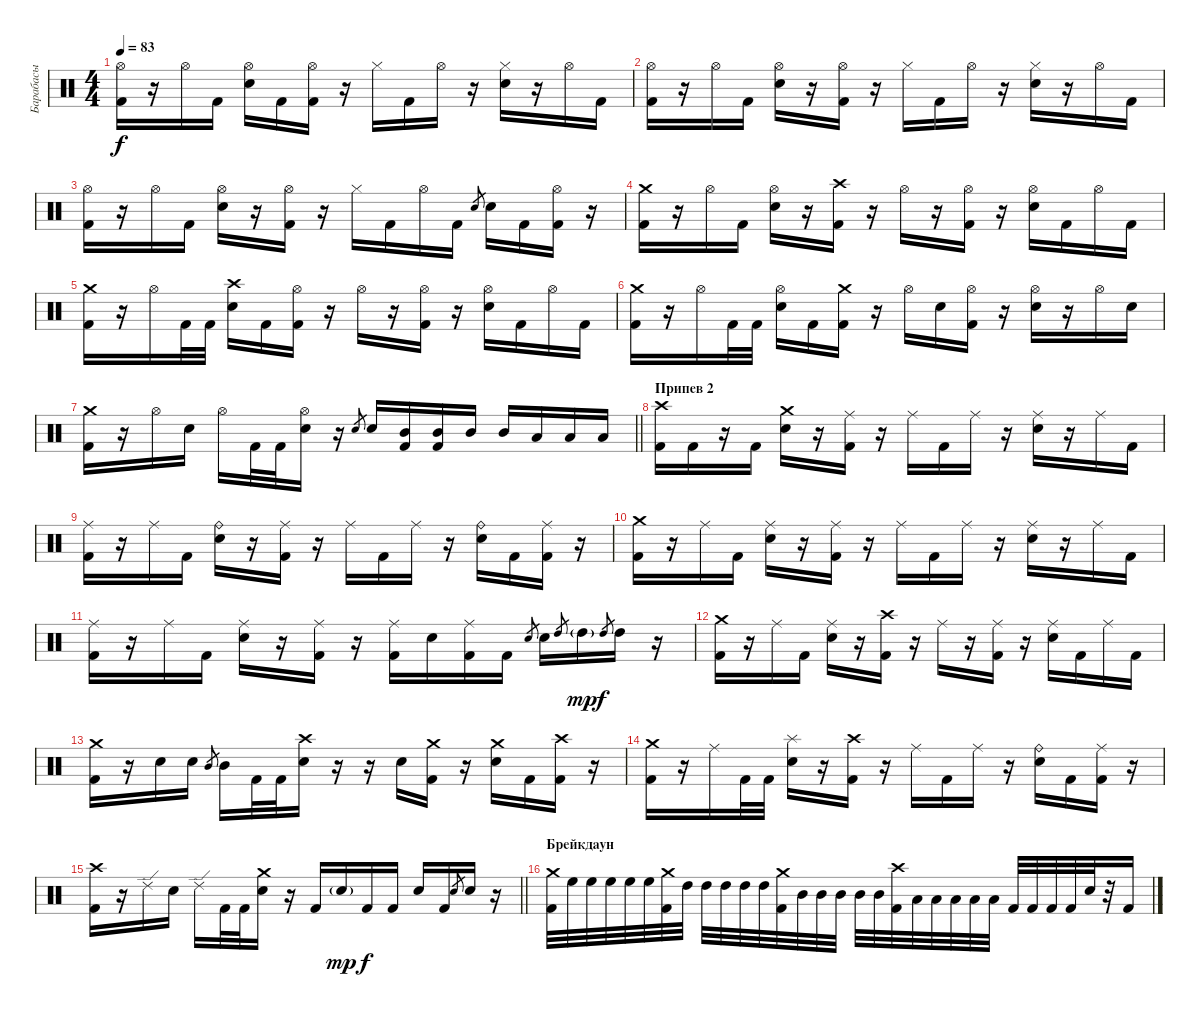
\track ("Барабасы" "Барабасы") {instrument percussion}
\staff {score}
\articulation defaults
\ts (4 4)
\tempo 83
\clef neutral
\ks c
("Kick (hit) 2" "Hi-Hat (open)").16{dy f} r.16 "Hi-Hat (open)".16 "Kick (hit) 2".16 ("Electric Snare (hit)" "Hi-Hat (open)").16 "Kick (hit) 2".16 ("Kick (hit) 2" "Hi-Hat (open)").16 r.16 "Hi-Hat (closed)".16 "Kick (hit) 2".16 "Hi-Hat (open)".16 r.16 ("Electric Snare (hit)" "Hi-Hat (closed)").16 r.16 "Hi-Hat (open)".16 "Kick (hit) 2".16 |
("Hi-Hat (open)" "Kick (hit) 2").16 r.16 "Hi-Hat (open)".16 "Kick (hit) 2".16 ("Electric Snare (hit)" "Hi-Hat (open)").16 r.16 ("Hi-Hat (open)" "Kick (hit) 2").16 r.16 "Hi-Hat (closed)".16 "Kick (hit) 2".16 "Hi-Hat (open)".16 r.16 ("Electric Snare (hit)" "Hi-Hat (closed)").16 r.16 "Hi-Hat (open)".16 "Kick (hit) 2".16 |
("Hi-Hat (open)" "Kick (hit) 2").16 r.16 "Hi-Hat (open)".16 "Kick (hit) 2".16 ("Electric Snare (hit)" "Hi-Hat (open)").16 r.16 ("Hi-Hat (open)" "Kick (hit) 2").16 r.16 "Hi-Hat (closed)".16 "Kick (hit) 2".16 "Hi-Hat (open)".16 "Kick (hit) 2".16 "Electric Snare (hit)".8{gr} "Electric Snare (hit)".16 "Kick (hit) 2".16 ("Kick (hit) 2" "Hi-Hat (open)").16 r.16 |
("Kick (hit) 2" "Crash medium (hit)").16 r.16 "Hi-Hat (open)".16 "Kick (hit) 2".16 ("Electric Snare (hit)" "Hi-Hat (open)").16 r.16 ("Kick (hit) 2" "Crash high (hit)").16 r.16 "Hi-Hat (open)".16 r.16 ("Kick (hit) 2" "Hi-Hat (open)").16 r.16 ("Electric Snare (hit)" "Hi-Hat (open)").16 "Kick (hit) 2".16 "Hi-Hat (open)".16 "Kick (hit) 2".16 |
("Kick (hit) 2" "Crash medium (hit)").16 r.16 "Hi-Hat (open)".16 "Kick (hit) 2".32 "Kick (hit) 2".32 ("Electric Snare (hit)" "Crash high (hit)").16 "Kick (hit) 2".16 ("Kick (hit) 2" "Hi-Hat (open)").16 r.16 "Hi-Hat (open)".16 r.16 ("Kick (hit) 2" "Hi-Hat (open)").16 r.16 ("Electric Snare (hit)" "Hi-Hat (open)").16 "Kick (hit) 2".16 "Hi-Hat (open)".16 "Kick (hit) 2".16 |
("Kick (hit) 2" "Crash medium (hit)").16 r.16 "Hi-Hat (open)".16 "Kick (hit) 2".32 "Kick (hit) 2".32 ("Electric Snare (hit)" "Hi-Hat (open)").16 "Kick (hit) 2".16 ("Kick (hit) 2" "Crash medium (hit)").16 r.16 "Hi-Hat (open)".16 "Electric Snare (hit)".16 ("Kick (hit) 2" "Hi-Hat (open)").16 r.16 ("Electric Snare (hit)" "Hi-Hat (open)").16 r.16 "Hi-Hat (open)".16 "Electric Snare (hit)".16 |
\barLineRight lightlight
("Kick (hit) 2" "Crash medium (hit)").16 r.16 "Hi-Hat (open)".16 "Electric Snare (hit)".16 "Hi-Hat (open)".16 "Kick (hit) 2".32 "Kick (hit) 2".32 ("Electric Snare (hit)" "Hi-Hat (open)").16 r.16 "Electric Snare (hit)".8{gr} "Electric Snare (hit)".16 ("Kick (hit) 2" "Mid Tom (hit)").16 ("Kick (hit) 2" "Mid Tom (hit)").16 "Mid Tom (hit)".16 "Mid Tom (hit)".16 "Low Tom (hit)".16 "Low Tom (hit)".16 "Low Tom (hit)".16 |
\section ("" "Припев 2")
("Crash high (hit)" "Kick (hit) 2").16 "Kick (hit) 2".16 r.16 "Kick (hit) 2".16 ("Crash medium (hit)" "Electric Snare (hit)").16 r.16 ("Kick (hit) 2" "Ride (middle)").16 r.16 "Ride (middle)".16 "Kick (hit) 2".16 "Ride (middle)".16 r.16 ("Electric Snare (hit)" "Ride (middle)").16 r.16 "Ride (middle)".16 "Kick (hit) 2".16 |
("Kick (hit) 2" "Ride (middle)").16 r.16 "Ride (middle)".16 "Kick (hit) 2".16 ("Electric Snare (hit)" "Ride (bell)").16 r.16 ("Kick (hit) 2" "Ride (middle)").16 r.16 "Ride (middle)".16 "Kick (hit) 2".16 "Ride (middle)".16 r.16 ("Electric Snare (hit)" "Ride (bell)").16 "Kick (hit) 2".16 ("Kick (hit) 2" "Ride (middle)").16 r.16 |
("Kick (hit) 2" "Crash medium (hit)").16 r.16 "Ride (middle)".16 "Kick (hit) 2".16 ("Electric Snare (hit)" "Ride (middle)").16 r.16 ("Kick (hit) 2" "Ride (middle)").16 r.16 "Ride (middle)".16 "Kick (hit) 2".16 "Ride (middle)".16 r.16 ("Electric Snare (hit)" "Ride (middle)").16 r.16 "Ride (middle)".16 "Kick (hit) 2".16 |
("Kick (hit) 2" "Ride (middle)").16 r.16 "Ride (middle)".16 "Kick (hit) 2".16 ("Electric Snare (hit)" "Ride (middle)").16 r.16 ("Kick (hit) 2" "Ride (middle)").16 r.16 ("Kick (hit) 2" "Ride (middle)").16 "Electric Snare (hit)".16 ("Kick (hit) 2" "Ride (middle)").16 "Kick (hit) 2".16 "Electric Snare (hit)".8{gr} "Electric Snare (hit)".16 "High Tom (hit)".8{gr} "High Tom (hit)"{g}.16{dy mp} "High Tom (hit)".8{gr dy f} "High Tom (hit)".16 r.16 |
("Kick (hit) 2" "Crash medium (hit)").16 r.16 "Ride (middle)".16 "Kick (hit) 2".16 ("Electric Snare (hit)" "Ride (middle)").16 r.16 ("Kick (hit) 2" "Crash high (hit)").16 r.16 "Ride (middle)".16 r.16 ("Kick (hit) 2" "Ride (middle)").16 r.16 ("Electric Snare (hit)" "Ride (middle)").16 "Kick (hit) 2".16 "Ride (middle)".16 "Kick (hit) 2".16 |
("Kick (hit) 2" "Crash medium (hit)").16 r.16 "Electric Snare (hit)".16 "Electric Snare (hit)".16 "Mid Tom (hit)".8{gr} "Mid Tom (hit)".16 "Kick (hit) 2".32 "Kick (hit) 2".32 ("Electric Snare (hit)" "Crash high (hit)").16 r.16 r.16 "Electric Snare (hit)".16 ("Kick (hit) 2" "Crash medium (hit)").16 r.16 ("Electric Snare (hit)" "Crash medium (hit)").16 "Kick (hit) 2".16 ("Kick (hit) 2" "Crash high (hit)").16 r.16 |
("Kick (hit) 2" "Crash medium (hit)").16 r.16 "Ride (middle)".16 "Kick (hit) 2".32 "Kick (hit) 2".32 ("Electric Snare (hit)" "Splash (hit)").16 r.16 ("Kick (hit) 2" "Crash high (hit)").16 r.16 "Ride (middle)".16 "Kick (hit) 2".16 "Ride (middle)".16 r.16 ("Electric Snare (hit)" "Ride (bell)").16 "Kick (hit) 2".16 ("Kick (hit) 2" "Ride (middle)").16 r.16 |
\barLineRight lightlight
("Kick (hit) 2" "Crash high (hit)").16 r.16 "Ride (edge) 2".16 "Electric Snare (hit)".16 "Ride (edge) 2".16 "Kick (hit) 2".32 "Kick (hit) 2".32 ("Electric Snare (hit)" "Crash medium (hit)").16 r.16 "Kick (hit) 2".16 "Electric Snare (hit)"{g}.16{dy mp} "Kick (hit) 2".16{dy f} "Kick (hit) 2".16 "Electric Snare (hit)".16 "Kick (hit) 2".16 "Electric Snare (hit)".8{gr} "Electric Snare (hit)".16 r.16 |
\section ("" "Брейкдаун")
("Kick (hit) 2" "Crash medium (hit)").32 "High Floor Tom (hit)".32 "High Floor Tom (hit)".32 "High Floor Tom (hit)".32 "High Floor Tom (hit)".32 "High Floor Tom (hit)".32 ("Kick (hit) 2" "Crash medium (hit)").32 "High Tom (hit)".32 "High Tom (hit)".32 "High Tom (hit)".32 "High Tom (hit)".32 "High Tom (hit)".32 ("Kick (hit) 2" "Crash medium (hit)").32 "Mid Tom (hit)".32 "Mid Tom (hit)".32 "Mid Tom (hit)".32 "Mid Tom (hit)".32 "Mid Tom (hit)".32 ("Kick (hit) 2" "Crash high (hit)").32 "Low Tom (hit)".32 "Low Tom (hit)".32 "Low Tom (hit)".32 "Low Tom (hit)".32 "Low Tom (hit)".32 "Kick (hit) 2".32 "Kick (hit) 2".32 "Kick (hit) 2".32 "Kick (hit) 2".32 "Electric Snare (hit)".32 r.32 "Kick (hit) 2".16
